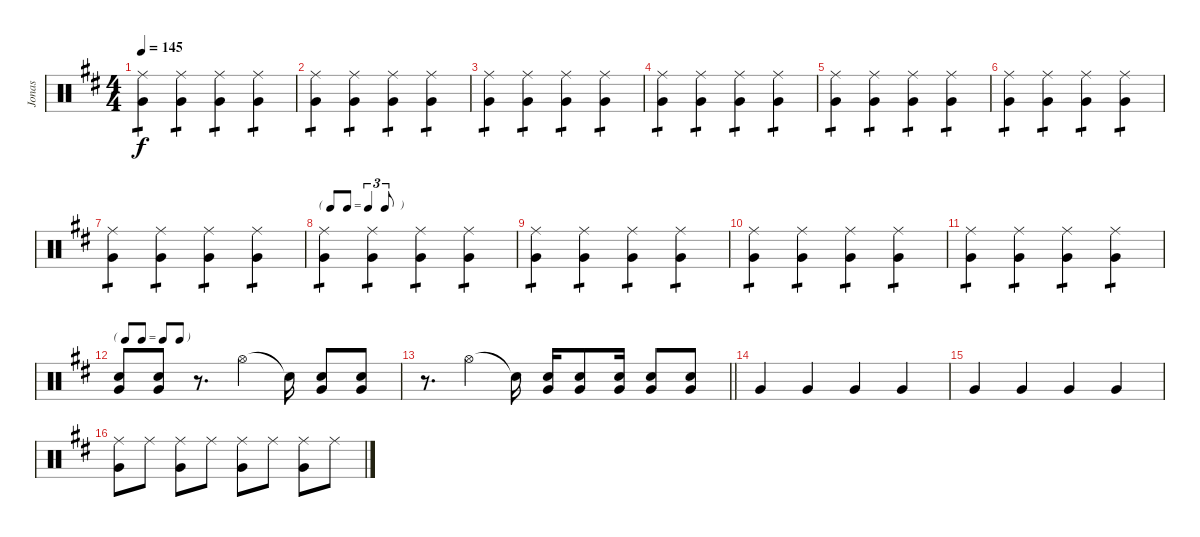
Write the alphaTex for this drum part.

\track ("Jonas" "Jonas") {instrument percussion}
\staff {score}
\articulation defaults
\ts (4 4)
\tempo 145
\clef neutral
\ks d
("Very Low Tom (hit)" "Ride (middle)").4{tp 1 dy f} ("Very Low Tom (hit)" "Ride (middle)").4{tp 1} ("Very Low Tom (hit)" "Ride (middle)").4{tp 1} ("Very Low Tom (hit)" "Ride (middle)").4{tp 1} |
("Very Low Tom (hit)" "Ride (middle)").4{tp 1} ("Very Low Tom (hit)" "Ride (middle)").4{tp 1} ("Very Low Tom (hit)" "Ride (middle)").4{tp 1} ("Very Low Tom (hit)" "Ride (middle)").4{tp 1} |
("Very Low Tom (hit)" "Ride (middle)").4{tp 1} ("Very Low Tom (hit)" "Ride (middle)").4{tp 1} ("Very Low Tom (hit)" "Ride (middle)").4{tp 1} ("Very Low Tom (hit)" "Ride (middle)").4{tp 1} |
("Very Low Tom (hit)" "Ride (middle)").4{tp 1} ("Very Low Tom (hit)" "Ride (middle)").4{tp 1} ("Very Low Tom (hit)" "Ride (middle)").4{tp 1} ("Very Low Tom (hit)" "Ride (middle)").4{tp 1} |
("Very Low Tom (hit)" "Ride (middle)").4{tp 1} ("Very Low Tom (hit)" "Ride (middle)").4{tp 1} ("Very Low Tom (hit)" "Ride (middle)").4{tp 1} ("Very Low Tom (hit)" "Ride (middle)").4{tp 1} |
("Very Low Tom (hit)" "Ride (middle)").4{tp 1} ("Very Low Tom (hit)" "Ride (middle)").4{tp 1} ("Very Low Tom (hit)" "Ride (middle)").4{tp 1} ("Very Low Tom (hit)" "Ride (middle)").4{tp 1} |
("Very Low Tom (hit)" "Ride (middle)").4{tp 1} ("Very Low Tom (hit)" "Ride (middle)").4{tp 1} ("Very Low Tom (hit)" "Ride (middle)").4{tp 1} ("Very Low Tom (hit)" "Ride (middle)").4{tp 1} |
\tf triplet8th
("Very Low Tom (hit)" "Ride (middle)").4{tp 1} ("Very Low Tom (hit)" "Ride (middle)").4{tp 1} ("Very Low Tom (hit)" "Ride (middle)").4{tp 1} ("Very Low Tom (hit)" "Ride (middle)").4{tp 1} |
("Very Low Tom (hit)" "Ride (middle)").4{tp 1} ("Very Low Tom (hit)" "Ride (middle)").4{tp 1} ("Very Low Tom (hit)" "Ride (middle)").4{tp 1} ("Very Low Tom (hit)" "Ride (middle)").4{tp 1} |
("Very Low Tom (hit)" "Ride (middle)").4{tp 1} ("Very Low Tom (hit)" "Ride (middle)").4{tp 1} ("Very Low Tom (hit)" "Ride (middle)").4{tp 1} ("Very Low Tom (hit)" "Ride (middle)").4{tp 1} |
("Very Low Tom (hit)" "Ride (middle)").4{tp 1} ("Very Low Tom (hit)" "Ride (middle)").4{tp 1} ("Very Low Tom (hit)" "Ride (middle)").4{tp 1} ("Very Low Tom (hit)" "Ride (middle)").4{tp 1} |
\tf none
("Snare (hit) 2" "Very Low Tom (hit)").8 ("Snare (hit) 2" "Very Low Tom (hit)").8 r.8{d} "Hi-Hat (open)".4 "Snare (hit)"{t}.16 ("Snare (hit) 2" "Very Low Tom (hit)").8 ("Snare (hit) 2" "Very Low Tom (hit)").8 |
\barLineRight lightlight
r.8{d} "Hi-Hat (open)".4 "Snare (hit)"{t}.16 ("Snare (hit) 2" "Very Low Tom (hit)").16 ("Snare (hit) 2" "Very Low Tom (hit)").8 ("Snare (hit) 2" "Very Low Tom (hit)").16 ("Snare (hit) 2" "Very Low Tom (hit)").8 ("Snare (hit) 2" "Very Low Tom (hit)").8 |
"Very Low Tom (hit)".4 "Very Low Tom (hit)".4 "Very Low Tom (hit)".4 "Very Low Tom (hit)".4 |
"Very Low Tom (hit)".4 "Very Low Tom (hit)".4 "Very Low Tom (hit)".4 "Very Low Tom (hit)".4 |
("Very Low Tom (hit)" "Ride (middle)").8 "Ride (middle)".8 ("Very Low Tom (hit)" "Ride (middle)").8 "Ride (middle)".8 ("Very Low Tom (hit)" "Ride (middle)").8 "Ride (middle)".8 ("Very Low Tom (hit)" "Ride (middle)").8 "Ride (middle)".8
